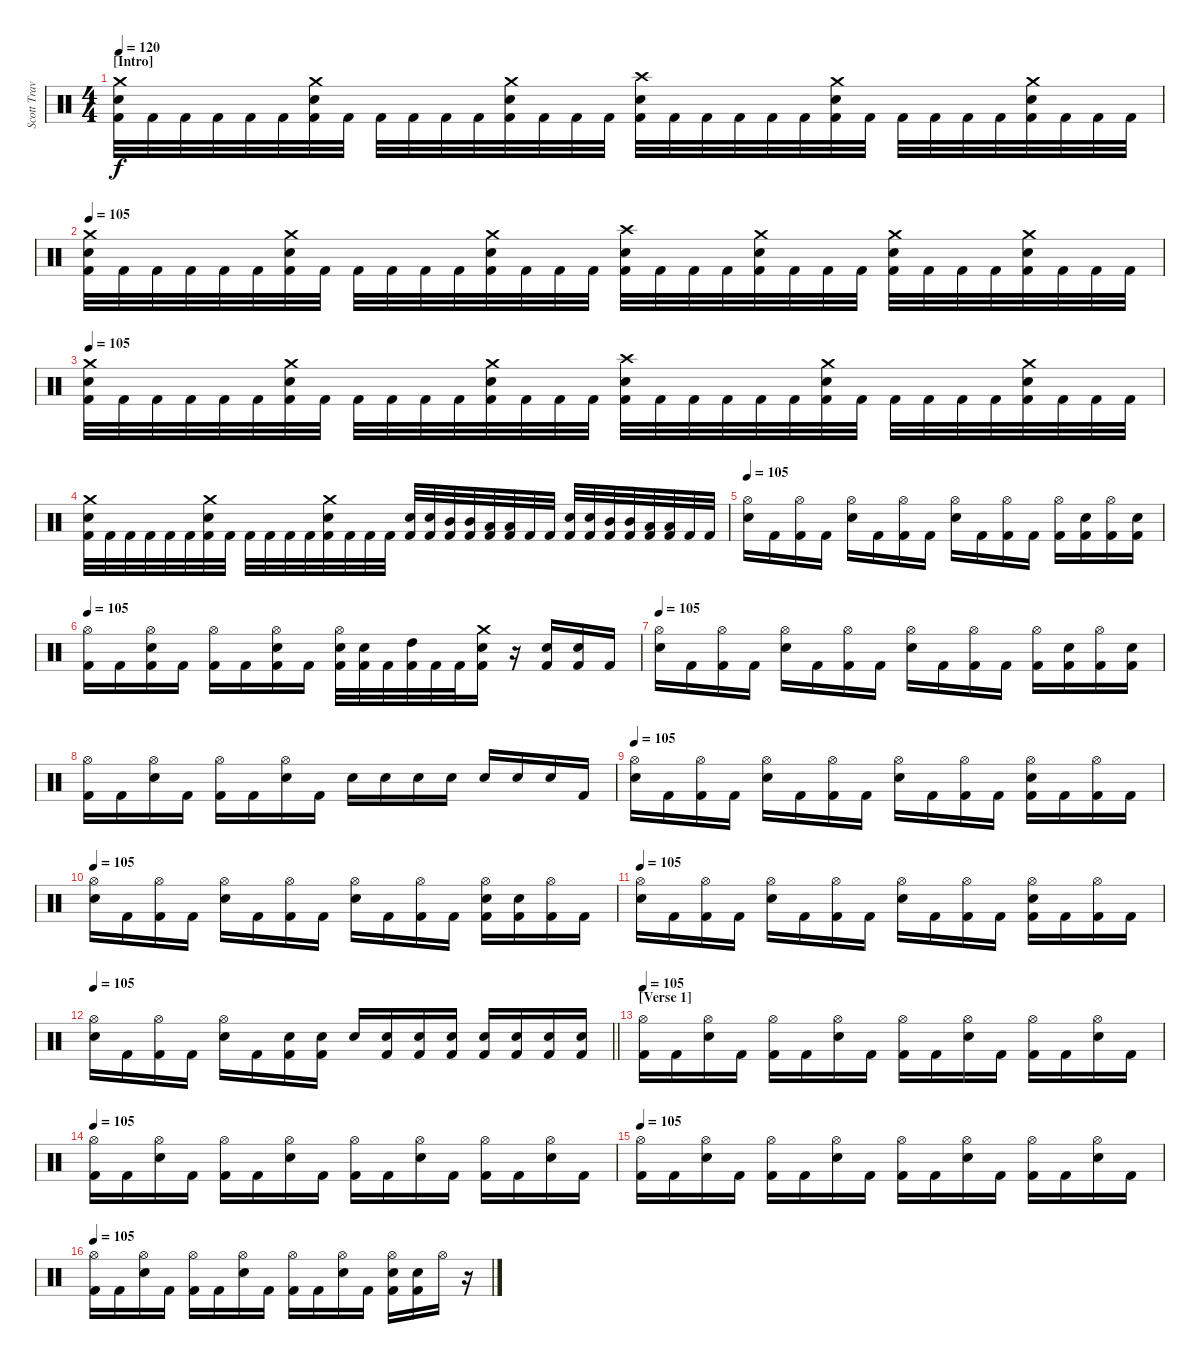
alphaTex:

\track ("Scott Travis" "Scott Trav") {instrument percussion}
\staff {score}
\articulation defaults
\ts (4 4)
\section ("" "[Intro]")
\tempo 120
\tempo 105
\tempo 120
\clef neutral
\ks c
("Crash medium (hit)" "Snare (hit) 2" "Kick (hit) 2").32{dy f} "Kick (hit) 2".32 "Kick (hit) 2".32 "Kick (hit) 2".32 "Kick (hit) 2".32 "Kick (hit) 2".32 ("Crash medium (hit)" "Snare (hit) 2" "Kick (hit) 2").32 "Kick (hit) 2".32 "Kick (hit) 2".32 "Kick (hit) 2".32 "Kick (hit) 2".32 "Kick (hit) 2".32 ("Crash medium (hit)" "Snare (hit) 2" "Kick (hit) 2").32 "Kick (hit) 2".32 "Kick (hit) 2".32 "Kick (hit) 2".32 ("Crash high (hit)" "Snare (hit) 2" "Kick (hit) 2").32 "Kick (hit) 2".32 "Kick (hit) 2".32 "Kick (hit) 2".32 "Kick (hit) 2".32 "Kick (hit) 2".32 ("Crash medium (hit)" "Snare (hit) 2" "Kick (hit) 2").32 "Kick (hit) 2".32 "Kick (hit) 2".32 "Kick (hit) 2".32 "Kick (hit) 2".32 "Kick (hit) 2".32 ("Crash medium (hit)" "Snare (hit) 2" "Kick (hit) 2").32 "Kick (hit) 2".32 "Kick (hit) 2".32 "Kick (hit) 2".32 |
\tempo 105
("Crash medium (hit)" "Snare (hit) 2" "Kick (hit) 2").32 "Kick (hit) 2".32 "Kick (hit) 2".32 "Kick (hit) 2".32 "Kick (hit) 2".32 "Kick (hit) 2".32 ("Crash medium (hit)" "Snare (hit) 2" "Kick (hit) 2").32 "Kick (hit) 2".32 "Kick (hit) 2".32 "Kick (hit) 2".32 "Kick (hit) 2".32 "Kick (hit) 2".32 ("Crash medium (hit)" "Snare (hit) 2" "Kick (hit) 2").32 "Kick (hit) 2".32 "Kick (hit) 2".32 "Kick (hit) 2".32 ("Crash high (hit)" "Snare (hit) 2" "Kick (hit) 2").32 "Kick (hit) 2".32 "Kick (hit) 2".32 "Kick (hit) 2".32 ("Snare (hit) 2" "Crash medium (hit)" "Kick (hit) 2").32 "Kick (hit) 2".32 "Kick (hit) 2".32 "Kick (hit) 2".32 ("Crash medium (hit)" "Snare (hit) 2" "Kick (hit) 2").32 "Kick (hit) 2".32 "Kick (hit) 2".32 "Kick (hit) 2".32 ("Crash medium (hit)" "Snare (hit) 2" "Kick (hit) 2").32 "Kick (hit) 2".32 "Kick (hit) 2".32 "Kick (hit) 2".32 |
\tempo 105
("Crash medium (hit)" "Snare (hit) 2" "Kick (hit) 2").32 "Kick (hit) 2".32 "Kick (hit) 2".32 "Kick (hit) 2".32 "Kick (hit) 2".32 "Kick (hit) 2".32 ("Crash medium (hit)" "Snare (hit) 2" "Kick (hit) 2").32 "Kick (hit) 2".32 "Kick (hit) 2".32 "Kick (hit) 2".32 "Kick (hit) 2".32 "Kick (hit) 2".32 ("Crash medium (hit)" "Snare (hit) 2" "Kick (hit) 2").32 "Kick (hit) 2".32 "Kick (hit) 2".32 "Kick (hit) 2".32 ("Crash high (hit)" "Snare (hit) 2" "Kick (hit) 2").32 "Kick (hit) 2".32 "Kick (hit) 2".32 "Kick (hit) 2".32 "Kick (hit) 2".32 "Kick (hit) 2".32 ("Crash medium (hit)" "Snare (hit) 2" "Kick (hit) 2").32 "Kick (hit) 2".32 "Kick (hit) 2".32 "Kick (hit) 2".32 "Kick (hit) 2".32 "Kick (hit) 2".32 ("Crash medium (hit)" "Snare (hit) 2" "Kick (hit) 2").32 "Kick (hit) 2".32 "Kick (hit) 2".32 "Kick (hit) 2".32 |
("Snare (hit) 2" "Crash medium (hit)" "Kick (hit) 2").32 "Kick (hit) 2".32 "Kick (hit) 2".32 "Kick (hit) 2".32 "Kick (hit) 2".32 "Kick (hit) 2".32 ("Snare (hit) 2" "Crash medium (hit)" "Kick (hit) 2").32 "Kick (hit) 2".32 "Kick (hit) 2".32 "Kick (hit) 2".32 "Kick (hit) 2".32 "Kick (hit) 2".32 ("Crash medium (hit)" "Snare (hit) 2" "Kick (hit) 2").32 "Kick (hit) 2".32 "Kick (hit) 2".32 "Kick (hit) 2".32 ("Snare (hit) 2" "Kick (hit) 2").32 ("Snare (hit) 2" "Kick (hit) 2").32 ("Mid Tom (hit)" "Kick (hit) 2").32 ("Mid Tom (hit)" "Kick (hit) 2").32 ("Low Tom (hit)" "Kick (hit) 2").32 ("Low Tom (hit)" "Kick (hit) 2").32 "Kick (hit) 2".32 "Kick (hit) 2".32 ("Snare (hit) 2" "Kick (hit) 2").32 ("Snare (hit) 2" "Kick (hit) 2").32 ("Mid Tom (hit)" "Kick (hit) 2").32 ("Mid Tom (hit)" "Kick (hit) 2").32 ("Low Tom (hit)" "Kick (hit) 2").32 ("Low Tom (hit)" "Kick (hit) 2").32 "Kick (hit) 2".32 "Kick (hit) 2".32 |
\tempo 105
("Hi-Hat (open)" "Snare (hit) 2").16 "Kick (hit) 2".16 ("Hi-Hat (open)" "Kick (hit) 2").16 "Kick (hit) 2".16 ("Hi-Hat (open)" "Snare (hit) 2").16 "Kick (hit) 2".16 ("Hi-Hat (open)" "Kick (hit) 2").16 "Kick (hit) 2".16 ("Hi-Hat (open)" "Snare (hit) 2").16 "Kick (hit) 2".16 ("Hi-Hat (open)" "Kick (hit) 2").16 "Kick (hit) 2".16 ("Hi-Hat (open)" "Kick (hit) 2").16 ("Snare (hit) 2" "Kick (hit) 2").16 ("Hi-Hat (open)" "Kick (hit) 2").16 ("Snare (hit) 2" "Kick (hit) 2").16 |
\tempo 105
("Hi-Hat (open)" "Kick (hit) 2").16 "Kick (hit) 2".16 ("Hi-Hat (open)" "Snare (hit) 2" "Kick (hit) 2").16 "Kick (hit) 2".16 ("Hi-Hat (open)" "Kick (hit) 2").16 "Kick (hit) 2".16 ("Hi-Hat (open)" "Snare (hit) 2" "Kick (hit) 2").16 "Kick (hit) 2".16 ("Hi-Hat (open)" "Snare (hit) 2" "Kick (hit) 2").32 ("Snare (hit) 2" "Kick (hit) 2").32 "Kick (hit) 2".32 ("High Tom (hit)" "Kick (hit) 2").32 "Kick (hit) 2".32 "Kick (hit) 2".32 ("Crash medium (hit)" "Snare (hit) 2" "Kick (hit) 2").16 r.16 ("Snare (hit) 2" "Kick (hit) 2").16 ("Snare (hit) 2" "Kick (hit) 2").16 "Kick (hit) 2".16 |
\tempo 105
("Hi-Hat (open)" "Snare (hit) 2").16 "Kick (hit) 2".16 ("Hi-Hat (open)" "Kick (hit) 2").16 "Kick (hit) 2".16 ("Hi-Hat (open)" "Snare (hit) 2").16 "Kick (hit) 2".16 ("Hi-Hat (open)" "Kick (hit) 2").16 "Kick (hit) 2".16 ("Hi-Hat (open)" "Snare (hit) 2").16 "Kick (hit) 2".16 ("Hi-Hat (open)" "Kick (hit) 2").16 "Kick (hit) 2".16 ("Hi-Hat (open)" "Kick (hit) 2").16 ("Snare (hit) 2" "Kick (hit) 2").16 ("Hi-Hat (open)" "Kick (hit) 2").16 ("Snare (hit) 2" "Kick (hit) 2").16 |
("Hi-Hat (open)" "Kick (hit) 2").16 "Kick (hit) 2".16 ("Hi-Hat (open)" "Snare (hit) 2").16 "Kick (hit) 2".16 ("Hi-Hat (open)" "Kick (hit) 2").16 "Kick (hit) 2".16 ("Hi-Hat (open)" "Snare (hit) 2").16 "Kick (hit) 2".16 "Snare (hit) 2".16 "Snare (hit) 2".16 "Snare (hit) 2".16 "Snare (hit) 2".16 "Snare (hit) 2".16 "Snare (hit) 2".16 "Snare (hit) 2".16 "Kick (hit) 2".16 |
\tempo 105
("Hi-Hat (open)" "Snare (hit) 2").16 "Kick (hit) 2".16 ("Hi-Hat (open)" "Kick (hit) 2").16 "Kick (hit) 2".16 ("Hi-Hat (open)" "Snare (hit) 2").16 "Kick (hit) 2".16 ("Hi-Hat (open)" "Kick (hit) 2").16 "Kick (hit) 2".16 ("Hi-Hat (open)" "Snare (hit) 2").16 "Kick (hit) 2".16 ("Hi-Hat (open)" "Kick (hit) 2").16 "Kick (hit) 2".16 ("Hi-Hat (open)" "Snare (hit) 2" "Kick (hit) 2").16 "Kick (hit) 2".16 ("Hi-Hat (open)" "Kick (hit) 2").16 "Kick (hit) 2".16 |
\tempo 105
("Hi-Hat (open)" "Snare (hit) 2").16 "Kick (hit) 2".16 ("Hi-Hat (open)" "Kick (hit) 2").16 "Kick (hit) 2".16 ("Hi-Hat (open)" "Snare (hit) 2").16 "Kick (hit) 2".16 ("Hi-Hat (open)" "Kick (hit) 2").16 "Kick (hit) 2".16 ("Hi-Hat (open)" "Snare (hit) 2").16 "Kick (hit) 2".16 ("Hi-Hat (open)" "Kick (hit) 2").16 "Kick (hit) 2".16 ("Hi-Hat (open)" "Snare (hit) 2" "Kick (hit) 2").16 ("Snare (hit) 2" "Kick (hit) 2").16 ("Hi-Hat (open)" "Kick (hit) 2").16 "Kick (hit) 2".16 |
\tempo 105
("Hi-Hat (open)" "Snare (hit) 2").16 "Kick (hit) 2".16 ("Hi-Hat (open)" "Kick (hit) 2").16 "Kick (hit) 2".16 ("Hi-Hat (open)" "Snare (hit) 2").16 "Kick (hit) 2".16 ("Hi-Hat (open)" "Kick (hit) 2").16 "Kick (hit) 2".16 ("Hi-Hat (open)" "Snare (hit) 2").16 "Kick (hit) 2".16 ("Hi-Hat (open)" "Kick (hit) 2").16 "Kick (hit) 2".16 ("Hi-Hat (open)" "Snare (hit) 2" "Kick (hit) 2").16 "Kick (hit) 2".16 ("Hi-Hat (open)" "Kick (hit) 2").16 "Kick (hit) 2".16 |
\tempo 105
\barLineRight lightlight
("Hi-Hat (open)" "Snare (hit) 2").16 "Kick (hit) 2".16 ("Hi-Hat (open)" "Kick (hit) 2").16 "Kick (hit) 2".16 ("Hi-Hat (open)" "Snare (hit) 2").16 "Kick (hit) 2".16 ("Snare (hit) 2" "Kick (hit) 2").16 ("Snare (hit) 2" "Kick (hit) 2").16 "Snare (hit) 2".16 ("Snare (hit) 2" "Kick (hit) 2").16 ("Snare (hit) 2" "Kick (hit) 2").16 ("Snare (hit) 2" "Kick (hit) 2").16 ("Snare (hit) 2" "Kick (hit) 2").16 ("Snare (hit) 2" "Kick (hit) 2").16 ("Snare (hit) 2" "Kick (hit) 2").16 ("Snare (hit) 2" "Kick (hit) 2").16 |
\section ("" "[Verse 1]")
\tempo 105
("Hi-Hat (open)" "Kick (hit) 2").16 "Kick (hit) 2".16 ("Hi-Hat (open)" "Snare (hit) 2").16 "Kick (hit) 2".16 ("Hi-Hat (open)" "Kick (hit) 2").16 "Kick (hit) 2".16 ("Hi-Hat (open)" "Snare (hit) 2").16 "Kick (hit) 2".16 ("Hi-Hat (open)" "Kick (hit) 2").16 "Kick (hit) 2".16 ("Hi-Hat (open)" "Snare (hit) 2").16 "Kick (hit) 2".16 ("Hi-Hat (open)" "Kick (hit) 2").16 "Kick (hit) 2".16 ("Hi-Hat (open)" "Snare (hit) 2").16 "Kick (hit) 2".16 |
\tempo 105
("Hi-Hat (open)" "Kick (hit) 2").16 "Kick (hit) 2".16 ("Hi-Hat (open)" "Snare (hit) 2").16 "Kick (hit) 2".16 ("Hi-Hat (open)" "Kick (hit) 2").16 "Kick (hit) 2".16 ("Hi-Hat (open)" "Snare (hit) 2").16 "Kick (hit) 2".16 ("Hi-Hat (open)" "Kick (hit) 2").16 "Kick (hit) 2".16 ("Hi-Hat (open)" "Snare (hit) 2").16 "Kick (hit) 2".16 ("Hi-Hat (open)" "Kick (hit) 2").16 "Kick (hit) 2".16 ("Hi-Hat (open)" "Snare (hit) 2").16 "Kick (hit) 2".16 |
\tempo 105
("Hi-Hat (open)" "Kick (hit) 2").16 "Kick (hit) 2".16 ("Hi-Hat (open)" "Snare (hit) 2").16 "Kick (hit) 2".16 ("Hi-Hat (open)" "Kick (hit) 2").16 "Kick (hit) 2".16 ("Hi-Hat (open)" "Snare (hit) 2").16 "Kick (hit) 2".16 ("Hi-Hat (open)" "Kick (hit) 2").16 "Kick (hit) 2".16 ("Hi-Hat (open)" "Snare (hit) 2").16 "Kick (hit) 2".16 ("Hi-Hat (open)" "Kick (hit) 2").16 "Kick (hit) 2".16 ("Hi-Hat (open)" "Snare (hit) 2").16 "Kick (hit) 2".16 |
\tempo 105
("Hi-Hat (open)" "Kick (hit) 2").16 "Kick (hit) 2".16 ("Hi-Hat (open)" "Snare (hit) 2").16 "Kick (hit) 2".16 ("Hi-Hat (open)" "Kick (hit) 2").16 "Kick (hit) 2".16 ("Hi-Hat (open)" "Snare (hit) 2").16 "Kick (hit) 2".16 ("Hi-Hat (open)" "Kick (hit) 2").16 "Kick (hit) 2".16 ("Hi-Hat (open)" "Snare (hit) 2").16 "Kick (hit) 2".16 ("Hi-Hat (open)" "Snare (hit) 2" "Kick (hit) 2").16 ("Snare (hit) 2" "Kick (hit) 2").16 "Hi-Hat (open)".16 r.16
